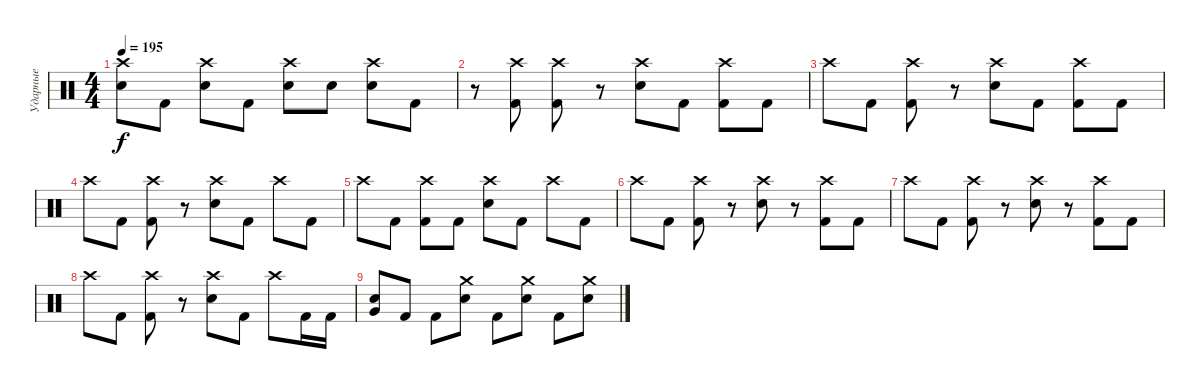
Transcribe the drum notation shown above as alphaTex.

\track ("Ударные" "Ударные") {instrument percussion}
\staff {score}
\articulation defaults
\ts (4 4)
\tempo 195
\clef neutral
\ks c
("Crash high (hit)" "Electric Snare (hit)").8{dy f} "Kick (hit) 2".8 ("Crash high (hit)" "Electric Snare (hit)").8 "Kick (hit) 2".8 ("Crash high (hit)" "Electric Snare (hit)").8 "Electric Snare (hit)".8 ("Crash high (hit)" "Electric Snare (hit)").8 "Kick (hit) 2".8 |
r.8 ("Crash high (hit)" "Kick (hit) 2").8 ("Crash high (hit)" "Kick (hit) 2").8 r.8 ("Crash high (hit)" "Electric Snare (hit)").8 "Kick (hit) 2".8 ("Crash high (hit)" "Kick (hit) 2").8 "Kick (hit) 2".8 |
"Crash high (hit)".8 "Kick (hit) 2".8 ("Crash high (hit)" "Kick (hit) 2").8 r.8 ("Crash high (hit)" "Electric Snare (hit)").8 "Kick (hit) 2".8 ("Crash high (hit)" "Kick (hit) 2").8 "Kick (hit) 2".8 |
"Crash high (hit)".8 "Kick (hit) 2".8 ("Crash high (hit)" "Kick (hit) 2").8 r.8 ("Crash high (hit)" "Electric Snare (hit)").8 "Kick (hit) 2".8 "Crash high (hit)".8 "Kick (hit) 2".8 |
"Crash high (hit)".8 "Kick (hit) 2".8 ("Crash high (hit)" "Kick (hit) 2").8 "Kick (hit) 2".8 ("Crash high (hit)" "Electric Snare (hit)").8 "Kick (hit) 2".8 "Crash high (hit)".8 "Kick (hit) 2".8 |
"Crash high (hit)".8 "Kick (hit) 2".8 ("Crash high (hit)" "Kick (hit) 2").8 r.8 ("Crash high (hit)" "Electric Snare (hit)").8 r.8 ("Crash high (hit)" "Kick (hit) 2").8 "Kick (hit) 2".8 |
"Crash high (hit)".8 "Kick (hit) 2".8 ("Crash high (hit)" "Kick (hit) 2").8 r.8 ("Crash high (hit)" "Electric Snare (hit)").8 r.8 ("Crash high (hit)" "Kick (hit) 2").8 "Kick (hit) 2".8 |
"Crash high (hit)".8 "Kick (hit) 2".8 ("Crash high (hit)" "Kick (hit) 2").8 r.8 ("Crash high (hit)" "Electric Snare (hit)").8 "Kick (hit) 2".8 "Crash high (hit)".8 "Kick (hit) 2".16 "Kick (hit) 2".16 |
("Very Low Tom (hit)" "Electric Snare (hit)").8 "Kick (hit) 2".8 "Kick (hit) 2".8 ("Crash medium (hit)" "Electric Snare (hit)").8 "Kick (hit) 2".8 ("Crash medium (hit)" "Electric Snare (hit)").8 "Kick (hit) 2".8 ("Crash medium (hit)" "Electric Snare (hit)").8
